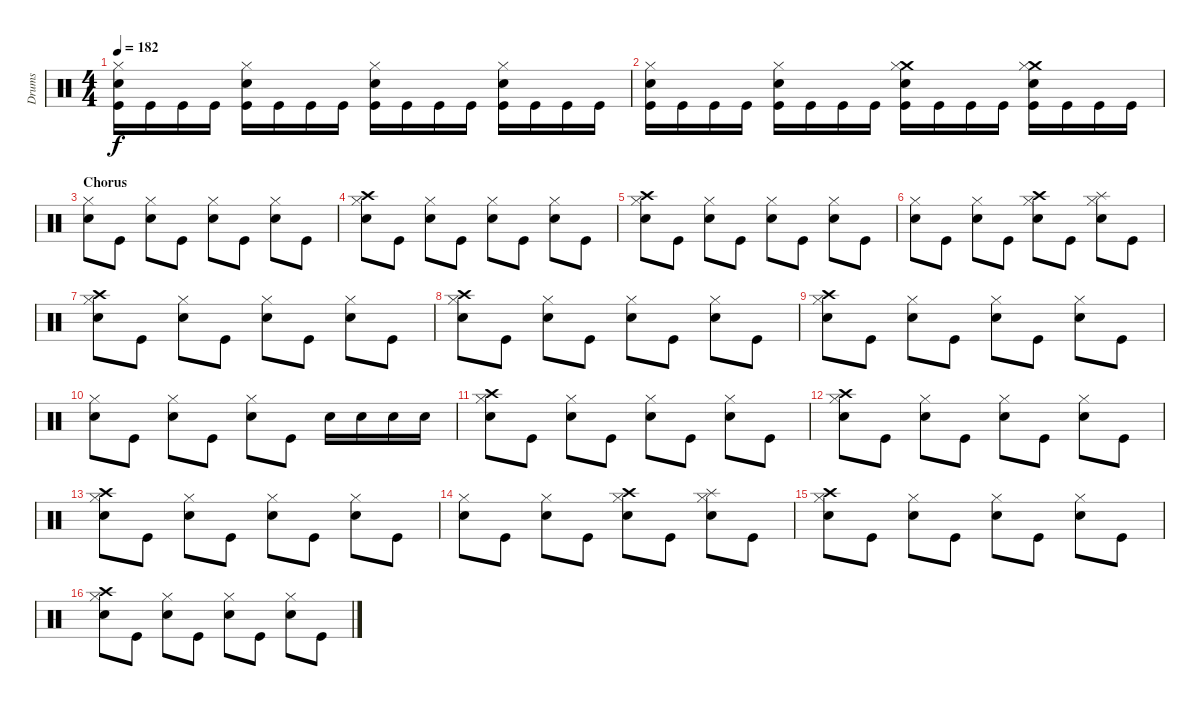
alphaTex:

\track ("Drums" "Drums") {instrument percussion}
\staff {score}
\articulation defaults
\ts (4 4)
\tempo 182
\clef neutral
\ks c
("Hi-Hat (closed)" "Snare (hit) 2" "Kick (hit)").16{dy f} "Kick (hit)".16 "Kick (hit)".16 "Kick (hit)".16 ("Hi-Hat (closed)" "Snare (hit) 2" "Kick (hit)").16 "Kick (hit)".16 "Kick (hit)".16 "Kick (hit)".16 ("Hi-Hat (closed)" "Snare (hit) 2" "Kick (hit)").16 "Kick (hit)".16 "Kick (hit)".16 "Kick (hit)".16 ("Hi-Hat (closed)" "Snare (hit) 2" "Kick (hit)").16 "Kick (hit)".16 "Kick (hit)".16 "Kick (hit)".16 |
("Hi-Hat (closed)" "Snare (hit) 2" "Kick (hit)").16 "Kick (hit)".16 "Kick (hit)".16 "Kick (hit)".16 ("Hi-Hat (closed)" "Snare (hit) 2" "Kick (hit)").16 "Kick (hit)".16 "Kick (hit)".16 "Kick (hit)".16 ("Crash medium (hit)" "Hi-Hat (closed)" "Snare (hit) 2" "Kick (hit)").16 "Kick (hit)".16 "Kick (hit)".16 "Kick (hit)".16 ("Crash medium (hit)" "Hi-Hat (closed)" "Snare (hit) 2" "Kick (hit)").16 "Kick (hit)".16 "Kick (hit)".16 "Kick (hit)".16 |
\section ("" "Chorus")
("Hi-Hat (closed)" "Snare (hit) 2").8 "Kick (hit)".8 ("Hi-Hat (closed)" "Snare (hit) 2").8 "Kick (hit)".8 ("Hi-Hat (closed)" "Snare (hit) 2").8 "Kick (hit)".8 ("Hi-Hat (closed)" "Snare (hit) 2").8 "Kick (hit)".8 |
("Crash high (hit)" "Hi-Hat (closed)" "Snare (hit) 2").8 "Kick (hit)".8 ("Hi-Hat (closed)" "Snare (hit) 2").8 "Kick (hit)".8 ("Hi-Hat (closed)" "Snare (hit) 2").8 "Kick (hit)".8 ("Hi-Hat (closed)" "Snare (hit) 2").8 "Kick (hit)".8 |
("Crash high (hit)" "Hi-Hat (closed)" "Snare (hit) 2").8 "Kick (hit)".8 ("Hi-Hat (closed)" "Snare (hit) 2").8 "Kick (hit)".8 ("Hi-Hat (closed)" "Snare (hit) 2").8 "Kick (hit)".8 ("Hi-Hat (closed)" "Snare (hit) 2").8 "Kick (hit)".8 |
("Hi-Hat (closed)" "Snare (hit) 2").8 "Kick (hit)".8 ("Hi-Hat (closed)" "Snare (hit) 2").8 "Kick (hit)".8 ("Crash high (hit)" "Hi-Hat (closed)" "Snare (hit) 2").8 "Kick (hit)".8 ("Splash (hit)" "Hi-Hat (closed)" "Snare (hit) 2").8 "Kick (hit)".8 |
("Crash high (hit)" "Hi-Hat (closed)" "Snare (hit) 2").8 "Kick (hit)".8 ("Hi-Hat (closed)" "Snare (hit) 2").8 "Kick (hit)".8 ("Hi-Hat (closed)" "Snare (hit) 2").8 "Kick (hit)".8 ("Hi-Hat (closed)" "Snare (hit) 2").8 "Kick (hit)".8 |
("Crash high (hit)" "Hi-Hat (closed)" "Snare (hit) 2").8 "Kick (hit)".8 ("Hi-Hat (closed)" "Snare (hit) 2").8 "Kick (hit)".8 ("Hi-Hat (closed)" "Snare (hit) 2").8 "Kick (hit)".8 ("Hi-Hat (closed)" "Snare (hit) 2").8 "Kick (hit)".8 |
("Crash high (hit)" "Hi-Hat (closed)" "Snare (hit) 2").8 "Kick (hit)".8 ("Hi-Hat (closed)" "Snare (hit) 2").8 "Kick (hit)".8 ("Hi-Hat (closed)" "Snare (hit) 2").8 "Kick (hit)".8 ("Hi-Hat (closed)" "Snare (hit) 2").8 "Kick (hit)".8 |
("Hi-Hat (closed)" "Snare (hit) 2").8 "Kick (hit)".8 ("Hi-Hat (closed)" "Snare (hit) 2").8 "Kick (hit)".8 ("Hi-Hat (closed)" "Snare (hit) 2").8 "Kick (hit)".8 "Snare (hit) 2".16 "Snare (hit) 2".16 "Snare (hit) 2".16 "Snare (hit) 2".16 |
("Crash high (hit)" "Hi-Hat (closed)" "Snare (hit) 2").8 "Kick (hit)".8 ("Hi-Hat (closed)" "Snare (hit) 2").8 "Kick (hit)".8 ("Hi-Hat (closed)" "Snare (hit) 2").8 "Kick (hit)".8 ("Hi-Hat (closed)" "Snare (hit) 2").8 "Kick (hit)".8 |
("Crash high (hit)" "Hi-Hat (closed)" "Snare (hit) 2").8 "Kick (hit)".8 ("Hi-Hat (closed)" "Snare (hit) 2").8 "Kick (hit)".8 ("Hi-Hat (closed)" "Snare (hit) 2").8 "Kick (hit)".8 ("Hi-Hat (closed)" "Snare (hit) 2").8 "Kick (hit)".8 |
("Crash high (hit)" "Hi-Hat (closed)" "Snare (hit) 2").8 "Kick (hit)".8 ("Hi-Hat (closed)" "Snare (hit) 2").8 "Kick (hit)".8 ("Hi-Hat (closed)" "Snare (hit) 2").8 "Kick (hit)".8 ("Hi-Hat (closed)" "Snare (hit) 2").8 "Kick (hit)".8 |
("Hi-Hat (closed)" "Snare (hit) 2").8 "Kick (hit)".8 ("Hi-Hat (closed)" "Snare (hit) 2").8 "Kick (hit)".8 ("Crash high (hit)" "Hi-Hat (closed)" "Snare (hit) 2").8 "Kick (hit)".8 ("Splash (hit)" "Hi-Hat (closed)" "Snare (hit) 2").8 "Kick (hit)".8 |
("Crash high (hit)" "Hi-Hat (closed)" "Snare (hit) 2").8 "Kick (hit)".8 ("Hi-Hat (closed)" "Snare (hit) 2").8 "Kick (hit)".8 ("Hi-Hat (closed)" "Snare (hit) 2").8 "Kick (hit)".8 ("Hi-Hat (closed)" "Snare (hit) 2").8 "Kick (hit)".8 |
("Crash high (hit)" "Hi-Hat (closed)" "Snare (hit) 2").8 "Kick (hit)".8 ("Hi-Hat (closed)" "Snare (hit) 2").8 "Kick (hit)".8 ("Hi-Hat (closed)" "Snare (hit) 2").8 "Kick (hit)".8 ("Hi-Hat (closed)" "Snare (hit) 2").8 "Kick (hit)".8
